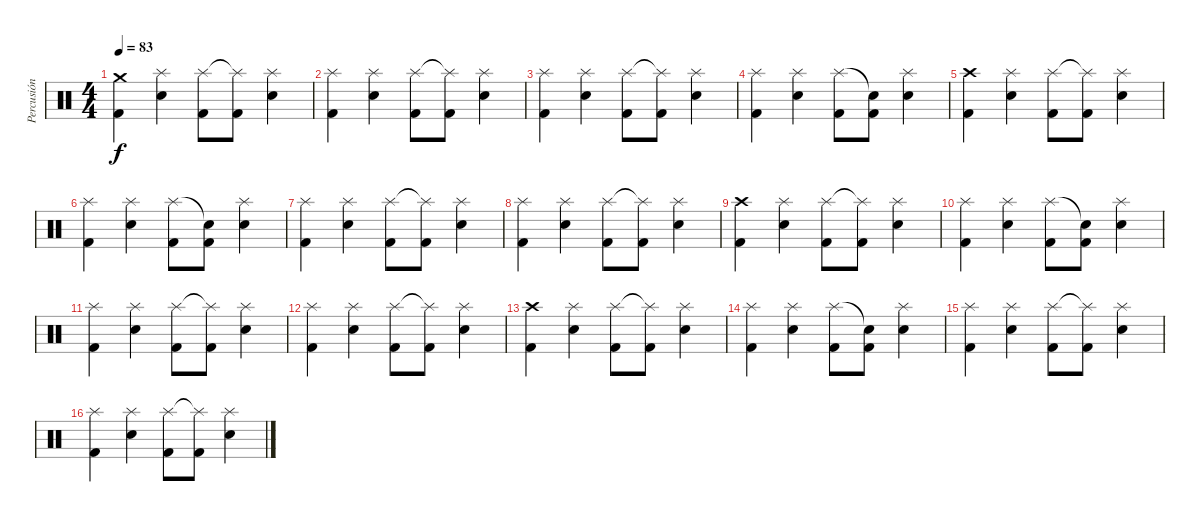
\track ("Percusión" "Percusión") {instrument percussion}
\staff {score}
\articulation defaults
\ts (4 4)
\tempo 83
\clef neutral
\ks c
("Crash medium (hit)" "Kick (hit) 2").4{dy f} ("Splash (hit)" "Snare (hit) 2").4 ("Splash (hit)" "Kick (hit) 2").8 ("Splash (hit)"{t} "Kick (hit) 2").8 ("Splash (hit)" "Snare (hit) 2").4 |
("Splash (hit)" "Kick (hit) 2").4 ("Splash (hit)" "Snare (hit) 2").4 ("Splash (hit)" "Kick (hit) 2").8 ("Splash (hit)"{t} "Kick (hit) 2").8 ("Splash (hit)" "Snare (hit) 2").4 |
("Splash (hit)" "Kick (hit) 2").4 ("Splash (hit)" "Snare (hit) 2").4 ("Splash (hit)" "Kick (hit) 2").8 ("Splash (hit)"{t} "Kick (hit) 2").8 ("Splash (hit)" "Snare (hit) 2").4 |
("Splash (hit)" "Kick (hit) 2").4 ("Splash (hit)" "Snare (hit) 2").4 ("Splash (hit)" "Kick (hit) 2").8 ("Snare (hit)"{t} "Kick (hit) 2").8 ("Splash (hit)" "Snare (hit) 2").4 |
("Crash high (hit)" "Kick (hit) 2").4 ("Splash (hit)" "Snare (hit) 2").4 ("Splash (hit)" "Kick (hit) 2").8 ("Splash (hit)"{t} "Kick (hit) 2").8 ("Splash (hit)" "Snare (hit) 2").4 |
("Splash (hit)" "Kick (hit) 2").4 ("Splash (hit)" "Snare (hit) 2").4 ("Splash (hit)" "Kick (hit) 2").8 ("Snare (hit)"{t} "Kick (hit) 2").8 ("Splash (hit)" "Snare (hit) 2").4 |
("Splash (hit)" "Kick (hit) 2").4 ("Splash (hit)" "Snare (hit) 2").4 ("Splash (hit)" "Kick (hit) 2").8 ("Splash (hit)"{t} "Kick (hit) 2").8 ("Splash (hit)" "Snare (hit) 2").4 |
("Splash (hit)" "Kick (hit) 2").4 ("Splash (hit)" "Snare (hit) 2").4 ("Splash (hit)" "Kick (hit) 2").8 ("Splash (hit)"{t} "Kick (hit) 2").8 ("Splash (hit)" "Snare (hit) 2").4 |
("Crash high (hit)" "Kick (hit) 2").4 ("Splash (hit)" "Snare (hit) 2").4 ("Splash (hit)" "Kick (hit) 2").8 ("Splash (hit)"{t} "Kick (hit) 2").8 ("Splash (hit)" "Snare (hit) 2").4 |
("Splash (hit)" "Kick (hit) 2").4 ("Splash (hit)" "Snare (hit) 2").4 ("Splash (hit)" "Kick (hit) 2").8 ("Snare (hit)"{t} "Kick (hit) 2").8 ("Splash (hit)" "Snare (hit) 2").4 |
("Splash (hit)" "Kick (hit) 2").4 ("Splash (hit)" "Snare (hit) 2").4 ("Splash (hit)" "Kick (hit) 2").8 ("Splash (hit)"{t} "Kick (hit) 2").8 ("Splash (hit)" "Snare (hit) 2").4 |
("Splash (hit)" "Kick (hit) 2").4 ("Splash (hit)" "Snare (hit) 2").4 ("Splash (hit)" "Kick (hit) 2").8 ("Splash (hit)"{t} "Kick (hit) 2").8 ("Splash (hit)" "Snare (hit) 2").4 |
("Crash high (hit)" "Kick (hit) 2").4 ("Splash (hit)" "Snare (hit) 2").4 ("Splash (hit)" "Kick (hit) 2").8 ("Splash (hit)"{t} "Kick (hit) 2").8 ("Splash (hit)" "Snare (hit) 2").4 |
("Splash (hit)" "Kick (hit) 2").4 ("Splash (hit)" "Snare (hit) 2").4 ("Splash (hit)" "Kick (hit) 2").8 ("Snare (hit)"{t} "Kick (hit) 2").8 ("Splash (hit)" "Snare (hit) 2").4 |
("Splash (hit)" "Kick (hit) 2").4 ("Splash (hit)" "Snare (hit) 2").4 ("Splash (hit)" "Kick (hit) 2").8 ("Splash (hit)"{t} "Kick (hit) 2").8 ("Splash (hit)" "Snare (hit) 2").4 |
("Splash (hit)" "Kick (hit) 2").4 ("Splash (hit)" "Snare (hit) 2").4 ("Splash (hit)" "Kick (hit) 2").8 ("Splash (hit)"{t} "Kick (hit) 2").8 ("Splash (hit)" "Snare (hit) 2").4
